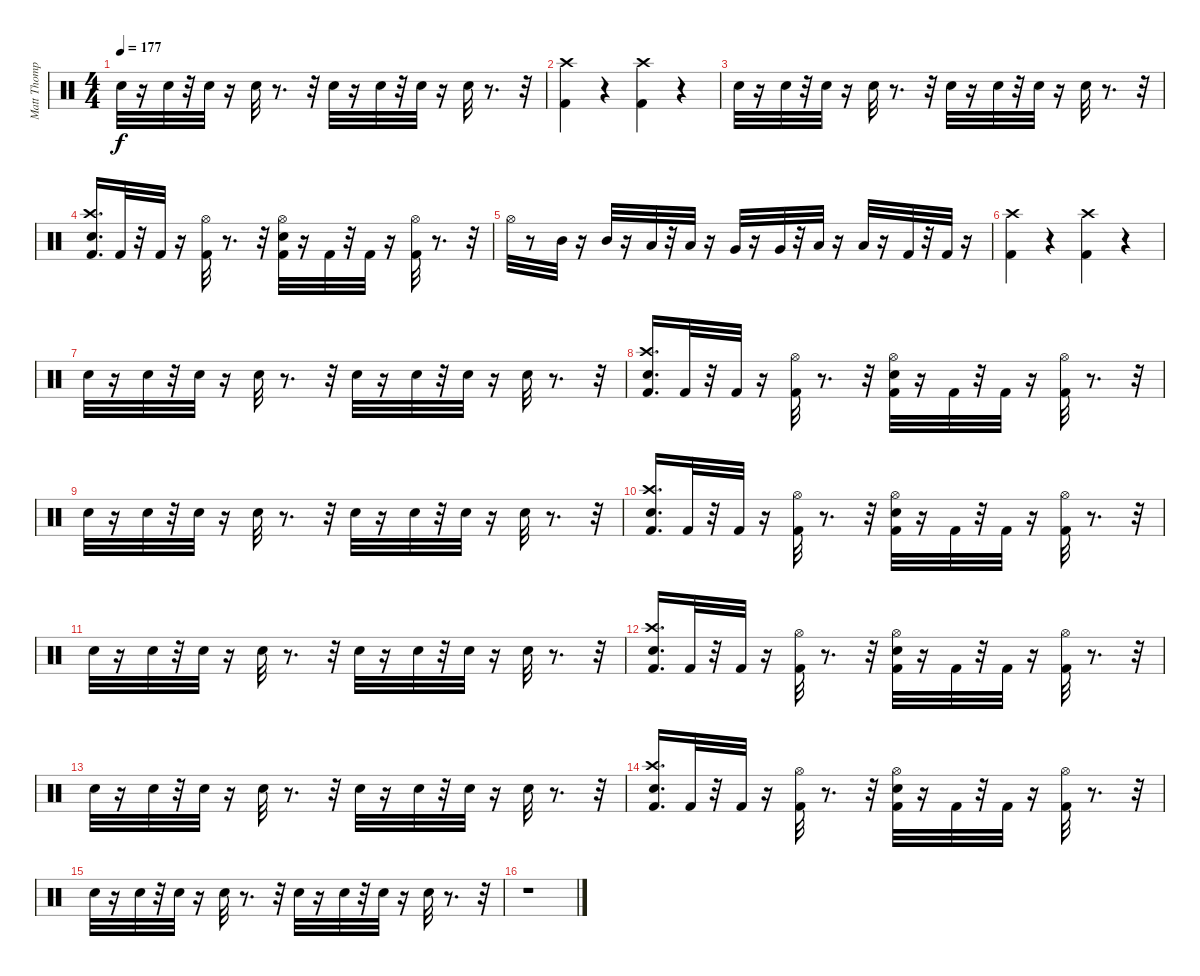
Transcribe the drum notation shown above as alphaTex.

\track ("Matt Thompson" "Matt Thomp") {instrument percussion}
\staff {score}
\articulation defaults
\ts (4 4)
\tempo 177
\clef neutral
\ks c "Snare (hit) 2".32{dy f}
r.16 "Snare (hit) 2".32 r.32 "Snare (hit) 2".32 r.16 "Snare (hit) 2".32 r.8{d} r.32 "Snare (hit) 2".32 r.16 "Snare (hit) 2".32 r.32 "Snare (hit) 2".32 r.16 "Snare (hit) 2".32 r.8{d} r.32 |
("Crash high (hit)" "Kick (hit) 2").4 r.4 ("Crash high (hit)" "Kick (hit) 2").4 r.4 |
"Snare (hit) 2".32 r.16 "Snare (hit) 2".32 r.32 "Snare (hit) 2".32 r.16 "Snare (hit) 2".32 r.8{d} r.32 "Snare (hit) 2".32 r.16 "Snare (hit) 2".32 r.32 "Snare (hit) 2".32 r.16 "Snare (hit) 2".32 r.8{d} r.32 |
("Snare (hit) 2" "Crash high (hit)" "Kick (hit) 2").16{d} "Kick (hit) 2".32 r.32 "Kick (hit) 2".32 r.16 ("Hi-Hat (open)" "Kick (hit) 2").32 r.8{d} r.32 ("Snare (hit) 2" "Hi-Hat (open)" "Kick (hit) 2").32 r.16 "Kick (hit) 2".32 r.32 "Kick (hit) 2".32 r.16 ("Hi-Hat (open)" "Kick (hit) 2").32 r.8{d} r.32 |
"Hi-Hat (open)".32 r.8 "Mid Tom (hit)".32 r.16 "Mid Tom (hit)".32 r.16 "Low Tom (hit)".32 r.32 "Low Tom (hit)".32 r.16 "Very Low Tom (hit)".32 r.16 "Very Low Tom (hit)".32 r.32 "Low Floor Tom (hit)".32 r.16 "Low Floor Tom (hit)".32 r.16 "Kick (hit) 2".32 r.32 "Kick (hit) 2".32 r.16 |
("Crash high (hit)" "Kick (hit) 2").4 r.4 ("Crash high (hit)" "Kick (hit) 2").4 r.4 |
"Snare (hit) 2".32 r.16 "Snare (hit) 2".32 r.32 "Snare (hit) 2".32 r.16 "Snare (hit) 2".32 r.8{d} r.32 "Snare (hit) 2".32 r.16 "Snare (hit) 2".32 r.32 "Snare (hit) 2".32 r.16 "Snare (hit) 2".32 r.8{d} r.32 |
("Snare (hit) 2" "Crash high (hit)" "Kick (hit) 2").16{d} "Kick (hit) 2".32 r.32 "Kick (hit) 2".32 r.16 ("Hi-Hat (open)" "Kick (hit) 2").32 r.8{d} r.32 ("Snare (hit) 2" "Hi-Hat (open)" "Kick (hit) 2").32 r.16 "Kick (hit) 2".32 r.32 "Kick (hit) 2".32 r.16 ("Hi-Hat (open)" "Kick (hit) 2").32 r.8{d} r.32 |
"Snare (hit) 2".32 r.16 "Snare (hit) 2".32 r.32 "Snare (hit) 2".32 r.16 "Snare (hit) 2".32 r.8{d} r.32 "Snare (hit) 2".32 r.16 "Snare (hit) 2".32 r.32 "Snare (hit) 2".32 r.16 "Snare (hit) 2".32 r.8{d} r.32 |
("Snare (hit) 2" "Crash high (hit)" "Kick (hit) 2").16{d} "Kick (hit) 2".32 r.32 "Kick (hit) 2".32 r.16 ("Kick (hit) 2" "Hi-Hat (open)").32 r.8{d} r.32 ("Snare (hit) 2" "Hi-Hat (open)" "Kick (hit) 2").32 r.16 "Kick (hit) 2".32 r.32 "Kick (hit) 2".32 r.16 ("Kick (hit) 2" "Hi-Hat (open)").32 r.8{d} r.32 |
"Snare (hit) 2".32 r.16 "Snare (hit) 2".32 r.32 "Snare (hit) 2".32 r.16 "Snare (hit) 2".32 r.8{d} r.32 "Snare (hit) 2".32 r.16 "Snare (hit) 2".32 r.32 "Snare (hit) 2".32 r.16 "Snare (hit) 2".32 r.8{d} r.32 |
("Snare (hit) 2" "Crash high (hit)" "Kick (hit) 2").16{d} "Kick (hit) 2".32 r.32 "Kick (hit) 2".32 r.16 ("Hi-Hat (open)" "Kick (hit) 2").32 r.8{d} r.32 ("Snare (hit) 2" "Hi-Hat (open)" "Kick (hit) 2").32 r.16 "Kick (hit) 2".32 r.32 "Kick (hit) 2".32 r.16 ("Hi-Hat (open)" "Kick (hit) 2").32 r.8{d} r.32 |
"Snare (hit) 2".32 r.16 "Snare (hit) 2".32 r.32 "Snare (hit) 2".32 r.16 "Snare (hit) 2".32 r.8{d} r.32 "Snare (hit) 2".32 r.16 "Snare (hit) 2".32 r.32 "Snare (hit) 2".32 r.16 "Snare (hit) 2".32 r.8{d} r.32 |
("Snare (hit) 2" "Crash high (hit)" "Kick (hit) 2").16{d} "Kick (hit) 2".32 r.32 "Kick (hit) 2".32 r.16 ("Kick (hit) 2" "Hi-Hat (open)").32 r.8{d} r.32 ("Snare (hit) 2" "Hi-Hat (open)" "Kick (hit) 2").32 r.16 "Kick (hit) 2".32 r.32 "Kick (hit) 2".32 r.16 ("Kick (hit) 2" "Hi-Hat (open)").32 r.8{d} r.32 |
"Snare (hit) 2".32 r.16 "Snare (hit) 2".32 r.32 "Snare (hit) 2".32 r.16 "Snare (hit) 2".32 r.8{d} r.32 "Snare (hit) 2".32 r.16 "Snare (hit) 2".32 r.32 "Snare (hit) 2".32 r.16 "Snare (hit) 2".32 r.8{d} r.32 |
r.1
